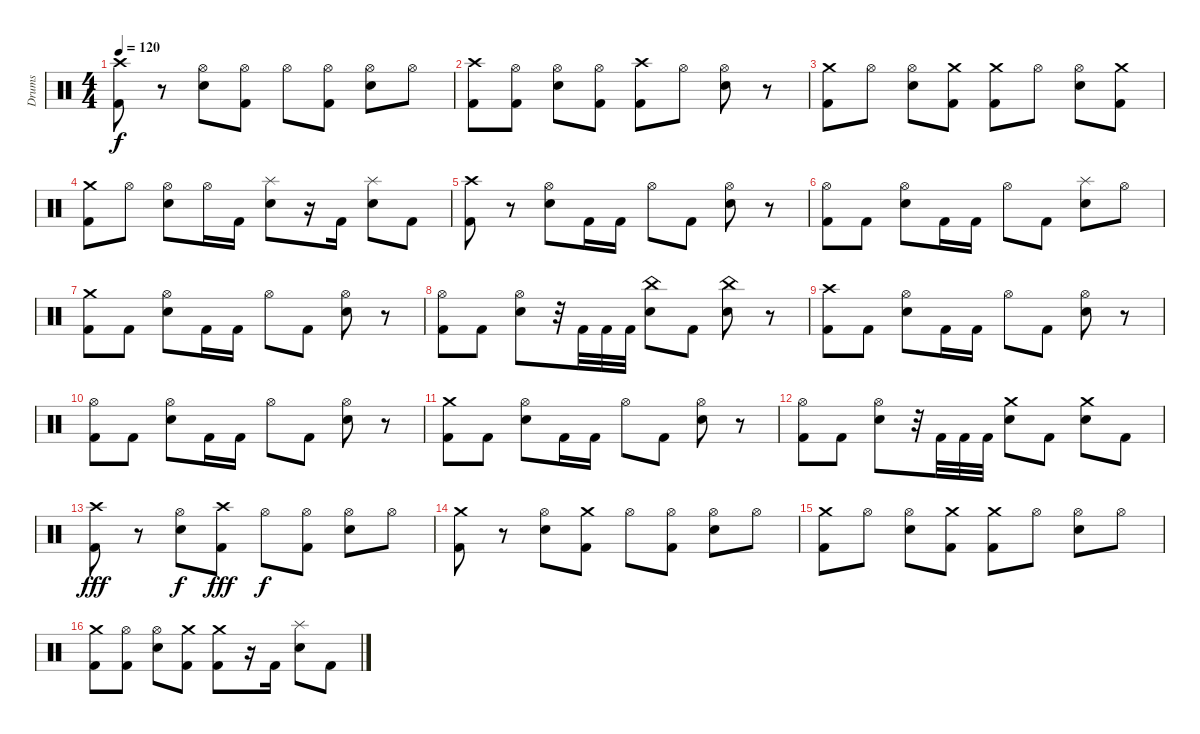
\track ("Drums" "Drums") {instrument percussion}
\staff {score}
\articulation defaults
\ts (4 4)
\tempo 120
\clef neutral
\ks c
("Crash high (hit)" "Kick (hit) 2").8{dy f} r.8 ("Hi-Hat (open)" "Electric Snare (hit)").8 ("Hi-Hat (open)" "Kick (hit) 2").8 "Hi-Hat (open)".8 ("Hi-Hat (open)" "Kick (hit) 2").8 ("Hi-Hat (open)" "Electric Snare (hit)").8 "Hi-Hat (open)".8 |
("Crash high (hit)" "Kick (hit) 2").8 ("Hi-Hat (open)" "Kick (hit) 2").8 ("Hi-Hat (open)" "Electric Snare (hit)").8 ("Hi-Hat (open)" "Kick (hit) 2").8 ("Crash high (hit)" "Kick (hit) 2").8 "Hi-Hat (open)".8 ("Hi-Hat (open)" "Electric Snare (hit)").8 r.8 |
("Crash medium (hit)" "Kick (hit) 2").8 "Hi-Hat (open)".8 ("Hi-Hat (open)" "Electric Snare (hit)").8 ("Crash medium (hit)" "Kick (hit) 2").8 ("Crash medium (hit)" "Kick (hit) 2").8 "Hi-Hat (open)".8 ("Hi-Hat (open)" "Electric Snare (hit)").8 ("Crash medium (hit)" "Kick (hit) 2").8 |
("Crash medium (hit)" "Kick (hit) 2").8 "Hi-Hat (open)".8 ("Hi-Hat (open)" "Electric Snare (hit)").8 "Hi-Hat (open)".16 "Kick (hit) 2".16 ("Splash (hit)" "Electric Snare (hit)").8 r.16 "Kick (hit) 2".16 ("Splash (hit)" "Electric Snare (hit)").8 "Kick (hit) 2".8 |
("Crash high (hit)" "Kick (hit) 2").8 r.8 ("Hi-Hat (open)" "Electric Snare (hit)").8 "Kick (hit) 2".16 "Kick (hit) 2".16 "Hi-Hat (open)".8 "Kick (hit) 2".8 ("Hi-Hat (open)" "Electric Snare (hit)").8 r.8 |
("Hi-Hat (open)" "Kick (hit) 2").8 "Kick (hit) 2".8 ("Hi-Hat (open)" "Electric Snare (hit)").8 "Kick (hit) 2".16 "Kick (hit) 2".16 "Hi-Hat (open)".8 "Kick (hit) 2".8 ("Splash (hit)" "Electric Snare (hit)").8 "Hi-Hat (open)".8 |
("Crash medium (hit)" "Kick (hit) 2").8 "Kick (hit) 2".8 ("Hi-Hat (open)" "Electric Snare (hit)").8 "Kick (hit) 2".16 "Kick (hit) 2".16 "Hi-Hat (open)".8 "Kick (hit) 2".8 ("Hi-Hat (open)" "Electric Snare (hit)").8 r.8 |
("Hi-Hat (open)" "Kick (hit) 2").8 "Kick (hit) 2".8 ("Hi-Hat (open)" "Electric Snare (hit)").8 r.32 "Kick (hit) 2".32 "Kick (hit) 2".32 "Kick (hit) 2".32 ("China (hit)" "Electric Snare (hit)").8 "Kick (hit) 2".8 ("China (hit)" "Electric Snare (hit)").8 r.8 |
("Crash high (hit)" "Kick (hit) 2").8 "Kick (hit) 2".8 ("Hi-Hat (open)" "Electric Snare (hit)").8 "Kick (hit) 2".16 "Kick (hit) 2".16 "Hi-Hat (open)".8 "Kick (hit) 2".8 ("Hi-Hat (open)" "Electric Snare (hit)").8 r.8 |
("Hi-Hat (open)" "Kick (hit) 2").8 "Kick (hit) 2".8 ("Hi-Hat (open)" "Electric Snare (hit)").8 "Kick (hit) 2".16 "Kick (hit) 2".16 "Hi-Hat (open)".8 "Kick (hit) 2".8 ("Hi-Hat (open)" "Electric Snare (hit)").8 r.8 |
("Crash medium (hit)" "Kick (hit) 2").8 "Kick (hit) 2".8 ("Hi-Hat (open)" "Electric Snare (hit)").8 "Kick (hit) 2".16 "Kick (hit) 2".16 "Hi-Hat (open)".8 "Kick (hit) 2".8 ("Hi-Hat (open)" "Electric Snare (hit)").8 r.8 |
("Hi-Hat (open)" "Kick (hit) 2").8 "Kick (hit) 2".8 ("Hi-Hat (open)" "Electric Snare (hit)").8 r.32 "Kick (hit) 2".32 "Kick (hit) 2".32 "Kick (hit) 2".32 ("Crash medium (hit)" "Electric Snare (hit)").8 "Kick (hit) 2".8 ("Crash medium (hit)" "Electric Snare (hit)").8 "Kick (hit) 2".8 |
("Crash high (hit)" "Kick (hit) 2").8{dy fff} r.8 ("Hi-Hat (open)" "Electric Snare (hit)").8{dy f} ("Crash high (hit)" "Kick (hit) 2").8{dy fff} "Hi-Hat (open)".8{dy f} ("Hi-Hat (open)" "Kick (hit) 2").8 ("Hi-Hat (open)" "Electric Snare (hit)").8 "Hi-Hat (open)".8 |
("Crash medium (hit)" "Kick (hit) 2").8 r.8 ("Hi-Hat (open)" "Electric Snare (hit)").8 ("Crash medium (hit)" "Kick (hit) 2").8 "Hi-Hat (open)".8 ("Hi-Hat (open)" "Kick (hit) 2").8 ("Hi-Hat (open)" "Electric Snare (hit)").8 "Hi-Hat (open)".8 |
("Crash medium (hit)" "Kick (hit) 2").8 "Hi-Hat (open)".8 ("Hi-Hat (open)" "Electric Snare (hit)").8 ("Crash medium (hit)" "Kick (hit) 2").8 ("Crash medium (hit)" "Kick (hit) 2").8 "Hi-Hat (open)".8 ("Hi-Hat (open)" "Electric Snare (hit)").8 "Hi-Hat (open)".8 |
("Crash medium (hit)" "Kick (hit) 2").8 ("Hi-Hat (open)" "Kick (hit) 2").8 ("Hi-Hat (open)" "Electric Snare (hit)").8 ("Crash medium (hit)" "Kick (hit) 2").8 ("Crash medium (hit)" "Kick (hit) 2").8 r.16 "Kick (hit) 2".16 ("Splash (hit)" "Electric Snare (hit)").8 "Kick (hit) 2".8
